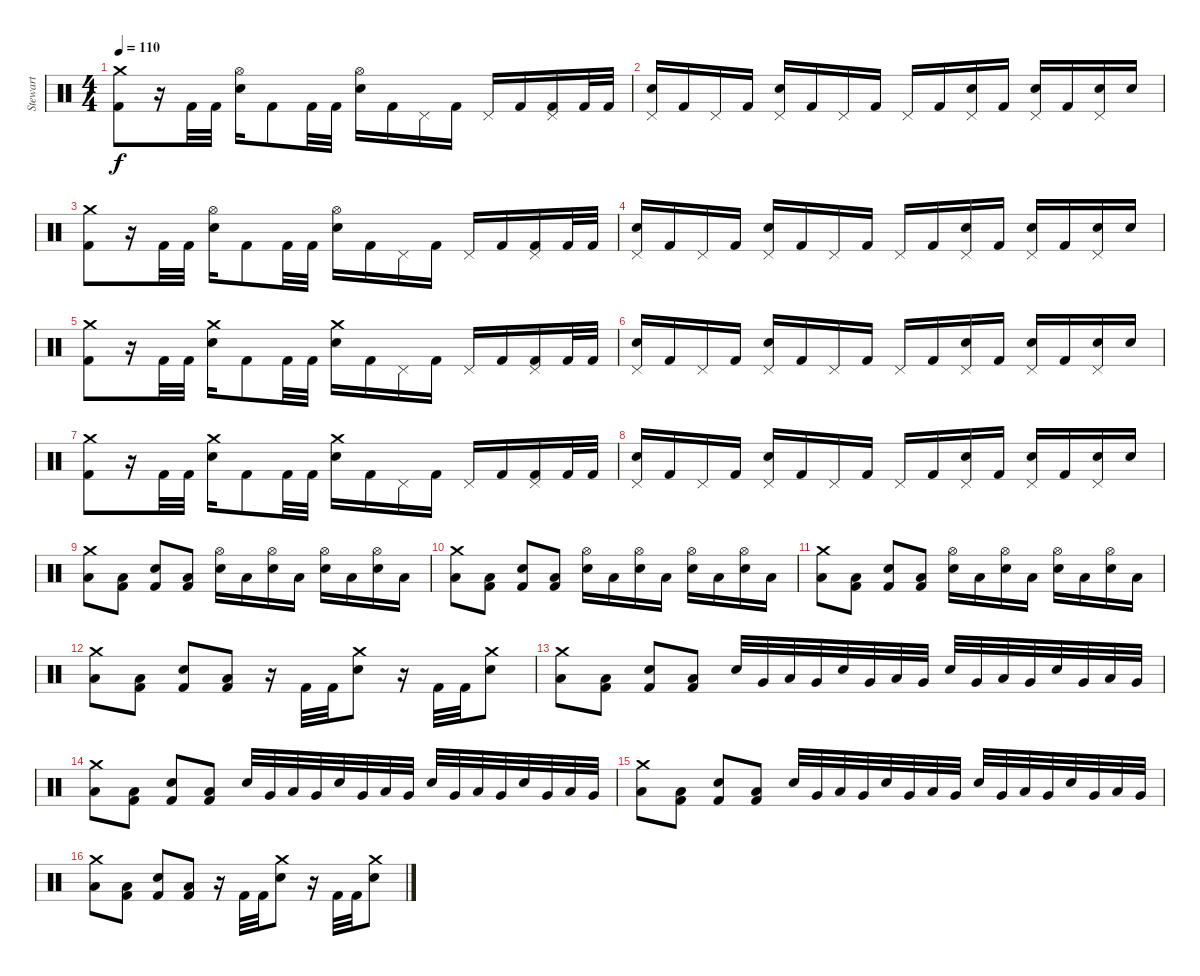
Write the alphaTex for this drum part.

\track ("Stewart" "Stewart") {instrument percussion}
\staff {score}
\articulation defaults
\ts (4 4)
\tempo 110
\clef neutral
\ks c
("Crash medium (hit)" "Kick (hit) 2").8{dy f} r.16 "Kick (hit) 2".32 "Kick (hit) 2".32 ("Hi-Hat (open)" "Electric Snare (hit)").16 "Kick (hit) 2".8 "Kick (hit) 2".32 "Kick (hit) 2".32 ("Hi-Hat (open)" "Electric Snare (hit)").16 "Kick (hit) 2".16 "Pedal Hi-Hat (hit)".16 "Kick (hit) 2".16 "Pedal Hi-Hat (hit)".16 "Kick (hit) 2".16 ("Pedal Hi-Hat (hit)" "Kick (hit) 2").16 "Kick (hit) 2".32 "Kick (hit) 2".32 |
("Pedal Hi-Hat (hit)" "Electric Snare (hit)").16 "Kick (hit) 2".16 "Pedal Hi-Hat (hit)".16 "Kick (hit) 2".16 ("Pedal Hi-Hat (hit)" "Electric Snare (hit)").16 "Kick (hit) 2".16 "Pedal Hi-Hat (hit)".16 "Kick (hit) 2".16 "Pedal Hi-Hat (hit)".16 "Kick (hit) 2".16 ("Pedal Hi-Hat (hit)" "Electric Snare (hit)").16 "Kick (hit) 2".16 ("Pedal Hi-Hat (hit)" "Electric Snare (hit)").16 "Kick (hit) 2".16 ("Pedal Hi-Hat (hit)" "Electric Snare (hit)").16 "Electric Snare (hit)".16 |
("Crash medium (hit)" "Kick (hit) 2").8 r.16 "Kick (hit) 2".32 "Kick (hit) 2".32 ("Hi-Hat (open)" "Electric Snare (hit)").16 "Kick (hit) 2".8 "Kick (hit) 2".32 "Kick (hit) 2".32 ("Hi-Hat (open)" "Electric Snare (hit)").16 "Kick (hit) 2".16 "Pedal Hi-Hat (hit)".16 "Kick (hit) 2".16 "Pedal Hi-Hat (hit)".16 "Kick (hit) 2".16 ("Pedal Hi-Hat (hit)" "Kick (hit) 2").16 "Kick (hit) 2".32 "Kick (hit) 2".32 |
("Pedal Hi-Hat (hit)" "Electric Snare (hit)").16 "Kick (hit) 2".16 "Pedal Hi-Hat (hit)".16 "Kick (hit) 2".16 ("Pedal Hi-Hat (hit)" "Electric Snare (hit)").16 "Kick (hit) 2".16 "Pedal Hi-Hat (hit)".16 "Kick (hit) 2".16 "Pedal Hi-Hat (hit)".16 "Kick (hit) 2".16 ("Pedal Hi-Hat (hit)" "Electric Snare (hit)").16 "Kick (hit) 2".16 ("Pedal Hi-Hat (hit)" "Electric Snare (hit)").16 "Kick (hit) 2".16 ("Pedal Hi-Hat (hit)" "Electric Snare (hit)").16 "Electric Snare (hit)".16 |
("Crash medium (hit)" "Kick (hit) 2").8 r.16 "Kick (hit) 2".32 "Kick (hit) 2".32 ("Crash medium (hit)" "Electric Snare (hit)").16 "Kick (hit) 2".8 "Kick (hit) 2".32 "Kick (hit) 2".32 ("Crash medium (hit)" "Electric Snare (hit)").16 "Kick (hit) 2".16 "Pedal Hi-Hat (hit)".16 "Kick (hit) 2".16 "Pedal Hi-Hat (hit)".16 "Kick (hit) 2".16 ("Pedal Hi-Hat (hit)" "Kick (hit) 2").16 "Kick (hit) 2".32 "Kick (hit) 2".32 |
("Pedal Hi-Hat (hit)" "Electric Snare (hit)").16 "Kick (hit) 2".16 "Pedal Hi-Hat (hit)".16 "Kick (hit) 2".16 ("Pedal Hi-Hat (hit)" "Electric Snare (hit)").16 "Kick (hit) 2".16 "Pedal Hi-Hat (hit)".16 "Kick (hit) 2".16 "Pedal Hi-Hat (hit)".16 "Kick (hit) 2".16 ("Pedal Hi-Hat (hit)" "Electric Snare (hit)").16 "Kick (hit) 2".16 ("Pedal Hi-Hat (hit)" "Electric Snare (hit)").16 "Kick (hit) 2".16 ("Pedal Hi-Hat (hit)" "Electric Snare (hit)").16 "Electric Snare (hit)".16 |
("Crash medium (hit)" "Kick (hit) 2").8 r.16 "Kick (hit) 2".32 "Kick (hit) 2".32 ("Crash medium (hit)" "Electric Snare (hit)").16 "Kick (hit) 2".8 "Kick (hit) 2".32 "Kick (hit) 2".32 ("Crash medium (hit)" "Electric Snare (hit)").16 "Kick (hit) 2".16 "Pedal Hi-Hat (hit)".16 "Kick (hit) 2".16 "Pedal Hi-Hat (hit)".16 "Kick (hit) 2".16 ("Pedal Hi-Hat (hit)" "Kick (hit) 2").16 "Kick (hit) 2".32 "Kick (hit) 2".32 |
("Pedal Hi-Hat (hit)" "Electric Snare (hit)").16 "Kick (hit) 2".16 "Pedal Hi-Hat (hit)".16 "Kick (hit) 2".16 ("Pedal Hi-Hat (hit)" "Electric Snare (hit)").16 "Kick (hit) 2".16 "Pedal Hi-Hat (hit)".16 "Kick (hit) 2".16 "Pedal Hi-Hat (hit)".16 "Kick (hit) 2".16 ("Pedal Hi-Hat (hit)" "Electric Snare (hit)").16 "Kick (hit) 2".16 ("Pedal Hi-Hat (hit)" "Electric Snare (hit)").16 "Kick (hit) 2".16 ("Pedal Hi-Hat (hit)" "Electric Snare (hit)").16 "Electric Snare (hit)".16 |
("Low Tom (hit)" "Crash medium (hit)").8 ("Low Tom (hit)" "Kick (hit) 2").8 ("Electric Snare (hit)" "Kick (hit) 2").8 ("Low Tom (hit)" "Kick (hit) 2").8 ("Electric Snare (hit)" "Hi-Hat (open)").16 "Low Tom (hit)".16 ("Electric Snare (hit)" "Hi-Hat (open)").16 "Low Tom (hit)".16 ("Electric Snare (hit)" "Hi-Hat (open)").16 "Low Tom (hit)".16 ("Electric Snare (hit)" "Hi-Hat (open)").16 "Low Tom (hit)".16 |
("Low Tom (hit)" "Crash medium (hit)").8 ("Low Tom (hit)" "Kick (hit) 2").8 ("Electric Snare (hit)" "Kick (hit) 2").8 ("Low Tom (hit)" "Kick (hit) 2").8 ("Electric Snare (hit)" "Hi-Hat (open)").16 "Low Tom (hit)".16 ("Electric Snare (hit)" "Hi-Hat (open)").16 "Low Tom (hit)".16 ("Electric Snare (hit)" "Hi-Hat (open)").16 "Low Tom (hit)".16 ("Electric Snare (hit)" "Hi-Hat (open)").16 "Low Tom (hit)".16 |
("Low Tom (hit)" "Crash medium (hit)").8 ("Low Tom (hit)" "Kick (hit) 2").8 ("Electric Snare (hit)" "Kick (hit) 2").8 ("Low Tom (hit)" "Kick (hit) 2").8 ("Electric Snare (hit)" "Hi-Hat (open)").16 "Low Tom (hit)".16 ("Electric Snare (hit)" "Hi-Hat (open)").16 "Low Tom (hit)".16 ("Electric Snare (hit)" "Hi-Hat (open)").16 "Low Tom (hit)".16 ("Electric Snare (hit)" "Hi-Hat (open)").16 "Low Tom (hit)".16 |
("Low Tom (hit)" "Crash medium (hit)").8 ("Low Tom (hit)" "Kick (hit) 2").8 ("Electric Snare (hit)" "Kick (hit) 2").8 ("Low Tom (hit)" "Kick (hit) 2").8 r.16 "Kick (hit) 2".32 "Kick (hit) 2".32 ("Crash medium (hit)" "Electric Snare (hit)").8 r.16 "Kick (hit) 2".32 "Kick (hit) 2".32 ("Crash medium (hit)" "Electric Snare (hit)").8 |
("Low Tom (hit)" "Crash medium (hit)").8 ("Low Tom (hit)" "Kick (hit) 2").8 ("Electric Snare (hit)" "Kick (hit) 2").8 ("Low Tom (hit)" "Kick (hit) 2").8 "Electric Snare (hit)".32 "Very Low Tom (hit)".32 "Low Tom (hit)".32 "Very Low Tom (hit)".32 "Electric Snare (hit)".32 "Very Low Tom (hit)".32 "Low Tom (hit)".32 "Very Low Tom (hit)".32 "Electric Snare (hit)".32 "Very Low Tom (hit)".32 "Low Tom (hit)".32 "Very Low Tom (hit)".32 "Electric Snare (hit)".32 "Very Low Tom (hit)".32 "Low Tom (hit)".32 "Very Low Tom (hit)".32 |
("Low Tom (hit)" "Crash medium (hit)").8 ("Low Tom (hit)" "Kick (hit) 2").8 ("Electric Snare (hit)" "Kick (hit) 2").8 ("Low Tom (hit)" "Kick (hit) 2").8 "Electric Snare (hit)".32 "Very Low Tom (hit)".32 "Low Tom (hit)".32 "Very Low Tom (hit)".32 "Electric Snare (hit)".32 "Very Low Tom (hit)".32 "Low Tom (hit)".32 "Very Low Tom (hit)".32 "Electric Snare (hit)".32 "Very Low Tom (hit)".32 "Low Tom (hit)".32 "Very Low Tom (hit)".32 "Electric Snare (hit)".32 "Very Low Tom (hit)".32 "Low Tom (hit)".32 "Very Low Tom (hit)".32 |
("Low Tom (hit)" "Crash medium (hit)").8 ("Low Tom (hit)" "Kick (hit) 2").8 ("Electric Snare (hit)" "Kick (hit) 2").8 ("Low Tom (hit)" "Kick (hit) 2").8 "Electric Snare (hit)".32 "Very Low Tom (hit)".32 "Low Tom (hit)".32 "Very Low Tom (hit)".32 "Electric Snare (hit)".32 "Very Low Tom (hit)".32 "Low Tom (hit)".32 "Very Low Tom (hit)".32 "Electric Snare (hit)".32 "Very Low Tom (hit)".32 "Low Tom (hit)".32 "Very Low Tom (hit)".32 "Electric Snare (hit)".32 "Very Low Tom (hit)".32 "Low Tom (hit)".32 "Very Low Tom (hit)".32 |
("Low Tom (hit)" "Crash medium (hit)").8 ("Low Tom (hit)" "Kick (hit) 2").8 ("Electric Snare (hit)" "Kick (hit) 2").8 ("Low Tom (hit)" "Kick (hit) 2").8 r.16 "Kick (hit) 2".32 "Kick (hit) 2".32 ("Crash medium (hit)" "Electric Snare (hit)").8 r.16 "Kick (hit) 2".32 "Kick (hit) 2".32 ("Crash medium (hit)" "Electric Snare (hit)").8
